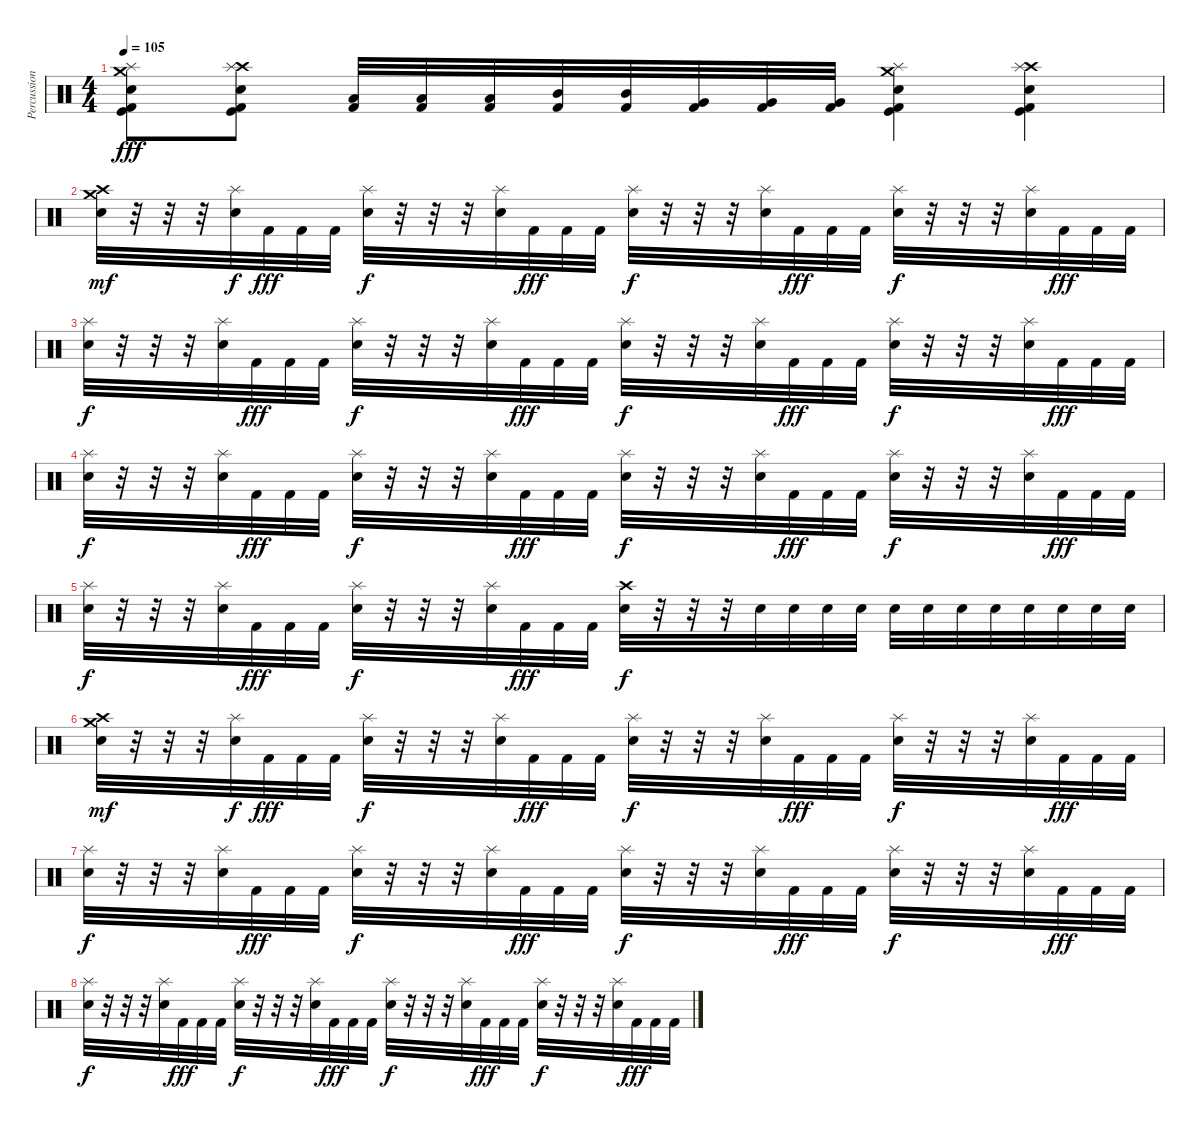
\track ("Percussions" "Percussion") {instrument percussion}
\staff {score}
\articulation defaults
\ts (4 4)
\tempo 105
\clef neutral
\ks c
("Crash medium (hit)" "Splash (hit)" "Snare (hit) 2" "Kick (hit)" "Kick (hit) 2").8{dy fff} ("Crash high (hit)" "Splash (hit)" "Snare (hit) 2" "Kick (hit)" "Kick (hit) 2").8 ("Low Tom (hit)" "Kick (hit) 2").32 ("Low Tom (hit)" "Kick (hit) 2").32 ("Low Tom (hit)" "Kick (hit) 2").32 ("Mid Tom (hit)" "Kick (hit) 2").32 ("Mid Tom (hit)" "Kick (hit) 2").32 ("Very Low Tom (hit)" "Kick (hit) 2").32 ("Very Low Tom (hit)" "Kick (hit) 2").32 ("Very Low Tom (hit)" "Kick (hit) 2").32 ("Crash medium (hit)" "Splash (hit)" "Electric Snare (hit)" "Kick (hit)" "Kick (hit) 2").4 ("Crash high (hit)" "Splash (hit)" "Electric Snare (hit)" "Kick (hit)" "Kick (hit) 2").4 |
("Crash high (hit)" "Crash medium (hit)" "Electric Snare (hit)").32{dy mf} r.32 r.32 r.32 ("Splash (hit)" "Electric Snare (hit)").32{dy f} "Kick (hit) 2".32{dy fff} "Kick (hit) 2".32 "Kick (hit) 2".32 ("Splash (hit)" "Electric Snare (hit)").32{dy f} r.32 r.32 r.32 ("Splash (hit)" "Electric Snare (hit)").32 "Kick (hit) 2".32{dy fff} "Kick (hit) 2".32 "Kick (hit) 2".32 ("Splash (hit)" "Electric Snare (hit)").32{dy f} r.32 r.32 r.32 ("Splash (hit)" "Electric Snare (hit)").32 "Kick (hit) 2".32{dy fff} "Kick (hit) 2".32 "Kick (hit) 2".32 ("Splash (hit)" "Electric Snare (hit)").32{dy f} r.32 r.32 r.32 ("Splash (hit)" "Electric Snare (hit)").32 "Kick (hit) 2".32{dy fff} "Kick (hit) 2".32 "Kick (hit) 2".32 |
("Splash (hit)" "Electric Snare (hit)").32{dy f} r.32 r.32 r.32 ("Splash (hit)" "Electric Snare (hit)").32 "Kick (hit) 2".32{dy fff} "Kick (hit) 2".32 "Kick (hit) 2".32 ("Splash (hit)" "Electric Snare (hit)").32{dy f} r.32 r.32 r.32 ("Splash (hit)" "Electric Snare (hit)").32 "Kick (hit) 2".32{dy fff} "Kick (hit) 2".32 "Kick (hit) 2".32 ("Splash (hit)" "Electric Snare (hit)").32{dy f} r.32 r.32 r.32 ("Splash (hit)" "Electric Snare (hit)").32 "Kick (hit) 2".32{dy fff} "Kick (hit) 2".32 "Kick (hit) 2".32 ("Splash (hit)" "Electric Snare (hit)").32{dy f} r.32 r.32 r.32 ("Splash (hit)" "Electric Snare (hit)").32 "Kick (hit) 2".32{dy fff} "Kick (hit) 2".32 "Kick (hit) 2".32 |
("Splash (hit)" "Electric Snare (hit)").32{dy f} r.32 r.32 r.32 ("Splash (hit)" "Electric Snare (hit)").32 "Kick (hit) 2".32{dy fff} "Kick (hit) 2".32 "Kick (hit) 2".32 ("Splash (hit)" "Electric Snare (hit)").32{dy f} r.32 r.32 r.32 ("Splash (hit)" "Electric Snare (hit)").32 "Kick (hit) 2".32{dy fff} "Kick (hit) 2".32 "Kick (hit) 2".32 ("Splash (hit)" "Electric Snare (hit)").32{dy f} r.32 r.32 r.32 ("Splash (hit)" "Electric Snare (hit)").32 "Kick (hit) 2".32{dy fff} "Kick (hit) 2".32 "Kick (hit) 2".32 ("Splash (hit)" "Electric Snare (hit)").32{dy f} r.32 r.32 r.32 ("Splash (hit)" "Electric Snare (hit)").32 "Kick (hit) 2".32{dy fff} "Kick (hit) 2".32 "Kick (hit) 2".32 |
("Splash (hit)" "Electric Snare (hit)").32{dy f} r.32 r.32 r.32 ("Splash (hit)" "Electric Snare (hit)").32 "Kick (hit) 2".32{dy fff} "Kick (hit) 2".32 "Kick (hit) 2".32 ("Splash (hit)" "Electric Snare (hit)").32{dy f} r.32 r.32 r.32 ("Splash (hit)" "Electric Snare (hit)").32 "Kick (hit) 2".32{dy fff} "Kick (hit) 2".32 "Kick (hit) 2".32 ("Crash high (hit)" "Electric Snare (hit)").32{dy f} r.32 r.32 r.32 "Electric Snare (hit)".32 "Electric Snare (hit)".32 "Electric Snare (hit)".32 "Electric Snare (hit)".32 "Electric Snare (hit)".32 "Electric Snare (hit)".32 "Electric Snare (hit)".32 "Electric Snare (hit)".32 "Electric Snare (hit)".32 "Electric Snare (hit)".32 "Electric Snare (hit)".32 "Electric Snare (hit)".32 |
("Crash high (hit)" "Crash medium (hit)" "Electric Snare (hit)").32{dy mf} r.32 r.32 r.32 ("Splash (hit)" "Electric Snare (hit)").32{dy f} "Kick (hit) 2".32{dy fff} "Kick (hit) 2".32 "Kick (hit) 2".32 ("Splash (hit)" "Electric Snare (hit)").32{dy f} r.32 r.32 r.32 ("Splash (hit)" "Electric Snare (hit)").32 "Kick (hit) 2".32{dy fff} "Kick (hit) 2".32 "Kick (hit) 2".32 ("Splash (hit)" "Electric Snare (hit)").32{dy f} r.32 r.32 r.32 ("Splash (hit)" "Electric Snare (hit)").32 "Kick (hit) 2".32{dy fff} "Kick (hit) 2".32 "Kick (hit) 2".32 ("Splash (hit)" "Electric Snare (hit)").32{dy f} r.32 r.32 r.32 ("Splash (hit)" "Electric Snare (hit)").32 "Kick (hit) 2".32{dy fff} "Kick (hit) 2".32 "Kick (hit) 2".32 |
("Splash (hit)" "Electric Snare (hit)").32{dy f} r.32 r.32 r.32 ("Splash (hit)" "Electric Snare (hit)").32 "Kick (hit) 2".32{dy fff} "Kick (hit) 2".32 "Kick (hit) 2".32 ("Splash (hit)" "Electric Snare (hit)").32{dy f} r.32 r.32 r.32 ("Splash (hit)" "Electric Snare (hit)").32 "Kick (hit) 2".32{dy fff} "Kick (hit) 2".32 "Kick (hit) 2".32 ("Splash (hit)" "Electric Snare (hit)").32{dy f} r.32 r.32 r.32 ("Splash (hit)" "Electric Snare (hit)").32 "Kick (hit) 2".32{dy fff} "Kick (hit) 2".32 "Kick (hit) 2".32 ("Splash (hit)" "Electric Snare (hit)").32{dy f} r.32 r.32 r.32 ("Splash (hit)" "Electric Snare (hit)").32 "Kick (hit) 2".32{dy fff} "Kick (hit) 2".32 "Kick (hit) 2".32 |
("Splash (hit)" "Electric Snare (hit)").32{dy f} r.32 r.32 r.32 ("Splash (hit)" "Electric Snare (hit)").32 "Kick (hit) 2".32{dy fff} "Kick (hit) 2".32 "Kick (hit) 2".32 ("Splash (hit)" "Electric Snare (hit)").32{dy f} r.32 r.32 r.32 ("Splash (hit)" "Electric Snare (hit)").32 "Kick (hit) 2".32{dy fff} "Kick (hit) 2".32 "Kick (hit) 2".32 ("Splash (hit)" "Electric Snare (hit)").32{dy f} r.32 r.32 r.32 ("Splash (hit)" "Electric Snare (hit)").32 "Kick (hit) 2".32{dy fff} "Kick (hit) 2".32 "Kick (hit) 2".32 ("Splash (hit)" "Electric Snare (hit)").32{dy f} r.32 r.32 r.32 ("Splash (hit)" "Electric Snare (hit)").32 "Kick (hit) 2".32{dy fff} "Kick (hit) 2".32 "Kick (hit) 2".32
